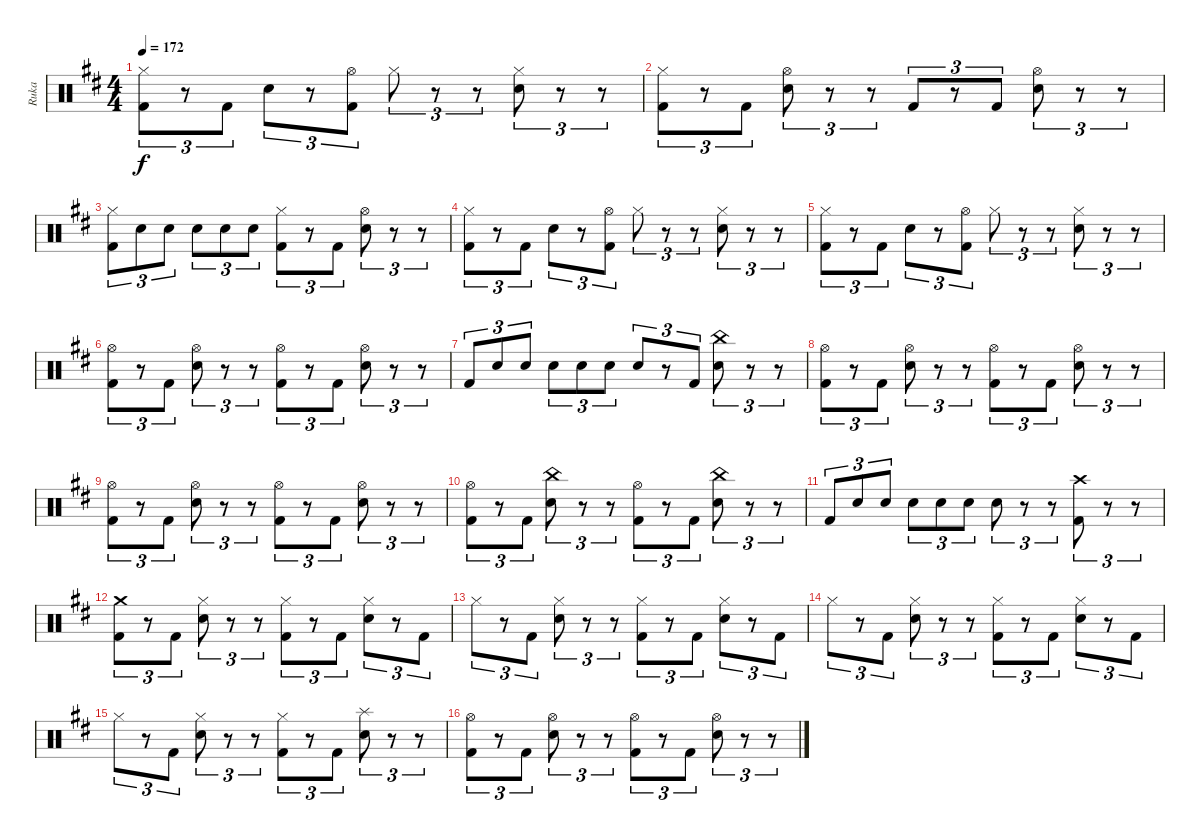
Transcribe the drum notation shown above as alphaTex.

\track ("Ruka" "Ruka") {instrument percussion}
\staff {score}
\articulation defaults
\ts (4 4)
\tempo 172
\clef neutral
\ks bminor
("Kick (hit) 2" "Hi-Hat (closed)").8{tu (3 2) dy f} r.8{tu (3 2)} "Kick (hit) 2".8{tu (3 2)} "Electric Snare (hit)".8{tu (3 2)} r.8{tu (3 2)} ("Kick (hit) 2" "Hi-Hat (open)").8{tu (3 2)} "Hi-Hat (closed)".8{tu (3 2)} r.8{tu (3 2)} r.8{tu (3 2)} ("Hi-Hat (closed)" "Electric Snare (hit)").8{tu (3 2)} r.8{tu (3 2)} r.8{tu (3 2)} |
("Kick (hit) 2" "Hi-Hat (closed)").8{tu (3 2)} r.8{tu (3 2)} "Kick (hit) 2".8{tu (3 2)} ("Hi-Hat (open)" "Electric Snare (hit)").8{tu (3 2)} r.8{tu (3 2)} r.8{tu (3 2)} "Kick (hit) 2".8{tu (3 2)} r.8{tu (3 2)} "Kick (hit) 2".8{tu (3 2)} ("Hi-Hat (open)" "Electric Snare (hit)").8{tu (3 2)} r.8{tu (3 2)} r.8{tu (3 2)} |
("Kick (hit) 2" "Hi-Hat (closed)").8{tu (3 2)} "Electric Snare (hit)".8{tu (3 2)} "Electric Snare (hit)".8{tu (3 2)} "Electric Snare (hit)".8{tu (3 2)} "Electric Snare (hit)".8{tu (3 2)} "Electric Snare (hit)".8{tu (3 2)} ("Hi-Hat (closed)" "Kick (hit) 2").8{tu (3 2)} r.8{tu (3 2)} "Kick (hit) 2".8{tu (3 2)} ("Hi-Hat (open)" "Electric Snare (hit)").8{tu (3 2)} r.8{tu (3 2)} r.8{tu (3 2)} |
("Kick (hit) 2" "Hi-Hat (closed)").8{tu (3 2)} r.8{tu (3 2)} "Kick (hit) 2".8{tu (3 2)} "Electric Snare (hit)".8{tu (3 2)} r.8{tu (3 2)} ("Kick (hit) 2" "Hi-Hat (open)").8{tu (3 2)} "Hi-Hat (closed)".8{tu (3 2)} r.8{tu (3 2)} r.8{tu (3 2)} ("Hi-Hat (closed)" "Electric Snare (hit)").8{tu (3 2)} r.8{tu (3 2)} r.8{tu (3 2)} |
("Kick (hit) 2" "Hi-Hat (closed)").8{tu (3 2)} r.8{tu (3 2)} "Kick (hit) 2".8{tu (3 2)} "Electric Snare (hit)".8{tu (3 2)} r.8{tu (3 2)} ("Kick (hit) 2" "Hi-Hat (open)").8{tu (3 2)} "Hi-Hat (closed)".8{tu (3 2)} r.8{tu (3 2)} r.8{tu (3 2)} ("Hi-Hat (closed)" "Electric Snare (hit)").8{tu (3 2)} r.8{tu (3 2)} r.8{tu (3 2)} |
("Kick (hit) 2" "Hi-Hat (open)").8{tu (3 2)} r.8{tu (3 2)} "Kick (hit) 2".8{tu (3 2)} ("Electric Snare (hit)" "Hi-Hat (open)").8{tu (3 2)} r.8{tu (3 2)} r.8{tu (3 2)} ("Kick (hit) 2" "Hi-Hat (open)").8{tu (3 2)} r.8{tu (3 2)} "Kick (hit) 2".8{tu (3 2)} ("Electric Snare (hit)" "Hi-Hat (open)").8{tu (3 2)} r.8{tu (3 2)} r.8{tu (3 2)} |
"Kick (hit) 2".8{tu (3 2)} "Electric Snare (hit)".8{tu (3 2)} "Electric Snare (hit)".8{tu (3 2)} "Electric Snare (hit)".8{tu (3 2)} "Electric Snare (hit)".8{tu (3 2)} "Electric Snare (hit)".8{tu (3 2)} "Electric Snare (hit)".8{tu (3 2)} r.8{tu (3 2)} "Kick (hit) 2".8{tu (3 2)} ("Electric Snare (hit)" "China (hit)").8{tu (3 2)} r.8{tu (3 2)} r.8{tu (3 2)} |
("Kick (hit) 2" "Hi-Hat (open)").8{tu (3 2)} r.8{tu (3 2)} "Kick (hit) 2".8{tu (3 2)} ("Electric Snare (hit)" "Hi-Hat (open)").8{tu (3 2)} r.8{tu (3 2)} r.8{tu (3 2)} ("Kick (hit) 2" "Hi-Hat (open)").8{tu (3 2)} r.8{tu (3 2)} "Kick (hit) 2".8{tu (3 2)} ("Electric Snare (hit)" "Hi-Hat (open)").8{tu (3 2)} r.8{tu (3 2)} r.8{tu (3 2)} |
("Kick (hit) 2" "Hi-Hat (open)").8{tu (3 2)} r.8{tu (3 2)} "Kick (hit) 2".8{tu (3 2)} ("Electric Snare (hit)" "Hi-Hat (open)").8{tu (3 2)} r.8{tu (3 2)} r.8{tu (3 2)} ("Kick (hit) 2" "Hi-Hat (open)").8{tu (3 2)} r.8{tu (3 2)} "Kick (hit) 2".8{tu (3 2)} ("Electric Snare (hit)" "Hi-Hat (open)").8{tu (3 2)} r.8{tu (3 2)} r.8{tu (3 2)} |
("Kick (hit) 2" "Hi-Hat (open)").8{tu (3 2)} r.8{tu (3 2)} "Kick (hit) 2".8{tu (3 2)} ("Electric Snare (hit)" "China (hit)").8{tu (3 2)} r.8{tu (3 2)} r.8{tu (3 2)} ("Kick (hit) 2" "Hi-Hat (open)").8{tu (3 2)} r.8{tu (3 2)} "Kick (hit) 2".8{tu (3 2)} ("Electric Snare (hit)" "China (hit)").8{tu (3 2)} r.8{tu (3 2)} r.8{tu (3 2)} |
"Kick (hit) 2".8{tu (3 2)} "Electric Snare (hit)".8{tu (3 2)} "Electric Snare (hit)".8{tu (3 2)} "Electric Snare (hit)".8{tu (3 2)} "Electric Snare (hit)".8{tu (3 2)} "Electric Snare (hit)".8{tu (3 2)} "Electric Snare (hit)".8{tu (3 2)} r.8{tu (3 2)} r.8{tu (3 2)} ("Kick (hit) 2" "Crash high (hit)").8{tu (3 2)} r.8{tu (3 2)} r.8{tu (3 2)} |
("Kick (hit) 2" "Crash medium (hit)").8{tu (3 2)} r.8{tu (3 2)} "Kick (hit) 2".8{tu (3 2)} ("Electric Snare (hit)" "Hi-Hat (closed)").8{tu (3 2)} r.8{tu (3 2)} r.8{tu (3 2)} ("Kick (hit) 2" "Hi-Hat (closed)").8{tu (3 2)} r.8{tu (3 2)} "Kick (hit) 2".8{tu (3 2)} ("Electric Snare (hit)" "Hi-Hat (closed)").8{tu (3 2)} r.8{tu (3 2)} "Kick (hit) 2".8{tu (3 2)} |
"Hi-Hat (closed)".8{tu (3 2)} r.8{tu (3 2)} "Kick (hit) 2".8{tu (3 2)} ("Electric Snare (hit)" "Hi-Hat (closed)").8{tu (3 2)} r.8{tu (3 2)} r.8{tu (3 2)} ("Kick (hit) 2" "Hi-Hat (closed)").8{tu (3 2)} r.8{tu (3 2)} "Kick (hit) 2".8{tu (3 2)} ("Electric Snare (hit)" "Hi-Hat (closed)").8{tu (3 2)} r.8{tu (3 2)} "Kick (hit) 2".8{tu (3 2)} |
"Hi-Hat (closed)".8{tu (3 2)} r.8{tu (3 2)} "Kick (hit) 2".8{tu (3 2)} ("Electric Snare (hit)" "Hi-Hat (closed)").8{tu (3 2)} r.8{tu (3 2)} r.8{tu (3 2)} ("Kick (hit) 2" "Hi-Hat (closed)").8{tu (3 2)} r.8{tu (3 2)} "Kick (hit) 2".8{tu (3 2)} ("Electric Snare (hit)" "Hi-Hat (closed)").8{tu (3 2)} r.8{tu (3 2)} "Kick (hit) 2".8{tu (3 2)} |
"Hi-Hat (closed)".8{tu (3 2)} r.8{tu (3 2)} "Kick (hit) 2".8{tu (3 2)} ("Electric Snare (hit)" "Hi-Hat (closed)").8{tu (3 2)} r.8{tu (3 2)} r.8{tu (3 2)} ("Kick (hit) 2" "Hi-Hat (closed)").8{tu (3 2)} r.8{tu (3 2)} "Kick (hit) 2".8{tu (3 2)} ("Electric Snare (hit)" "Splash (hit)").8{tu (3 2)} r.8{tu (3 2)} r.8{tu (3 2)} |
("Kick (hit) 2" "Hi-Hat (open)").8{tu (3 2)} r.8{tu (3 2)} "Kick (hit) 2".8{tu (3 2)} ("Electric Snare (hit)" "Hi-Hat (open)").8{tu (3 2)} r.8{tu (3 2)} r.8{tu (3 2)} ("Kick (hit) 2" "Hi-Hat (open)").8{tu (3 2)} r.8{tu (3 2)} "Kick (hit) 2".8{tu (3 2)} ("Electric Snare (hit)" "Hi-Hat (open)").8{tu (3 2)} r.8{tu (3 2)} r.8{tu (3 2)}
